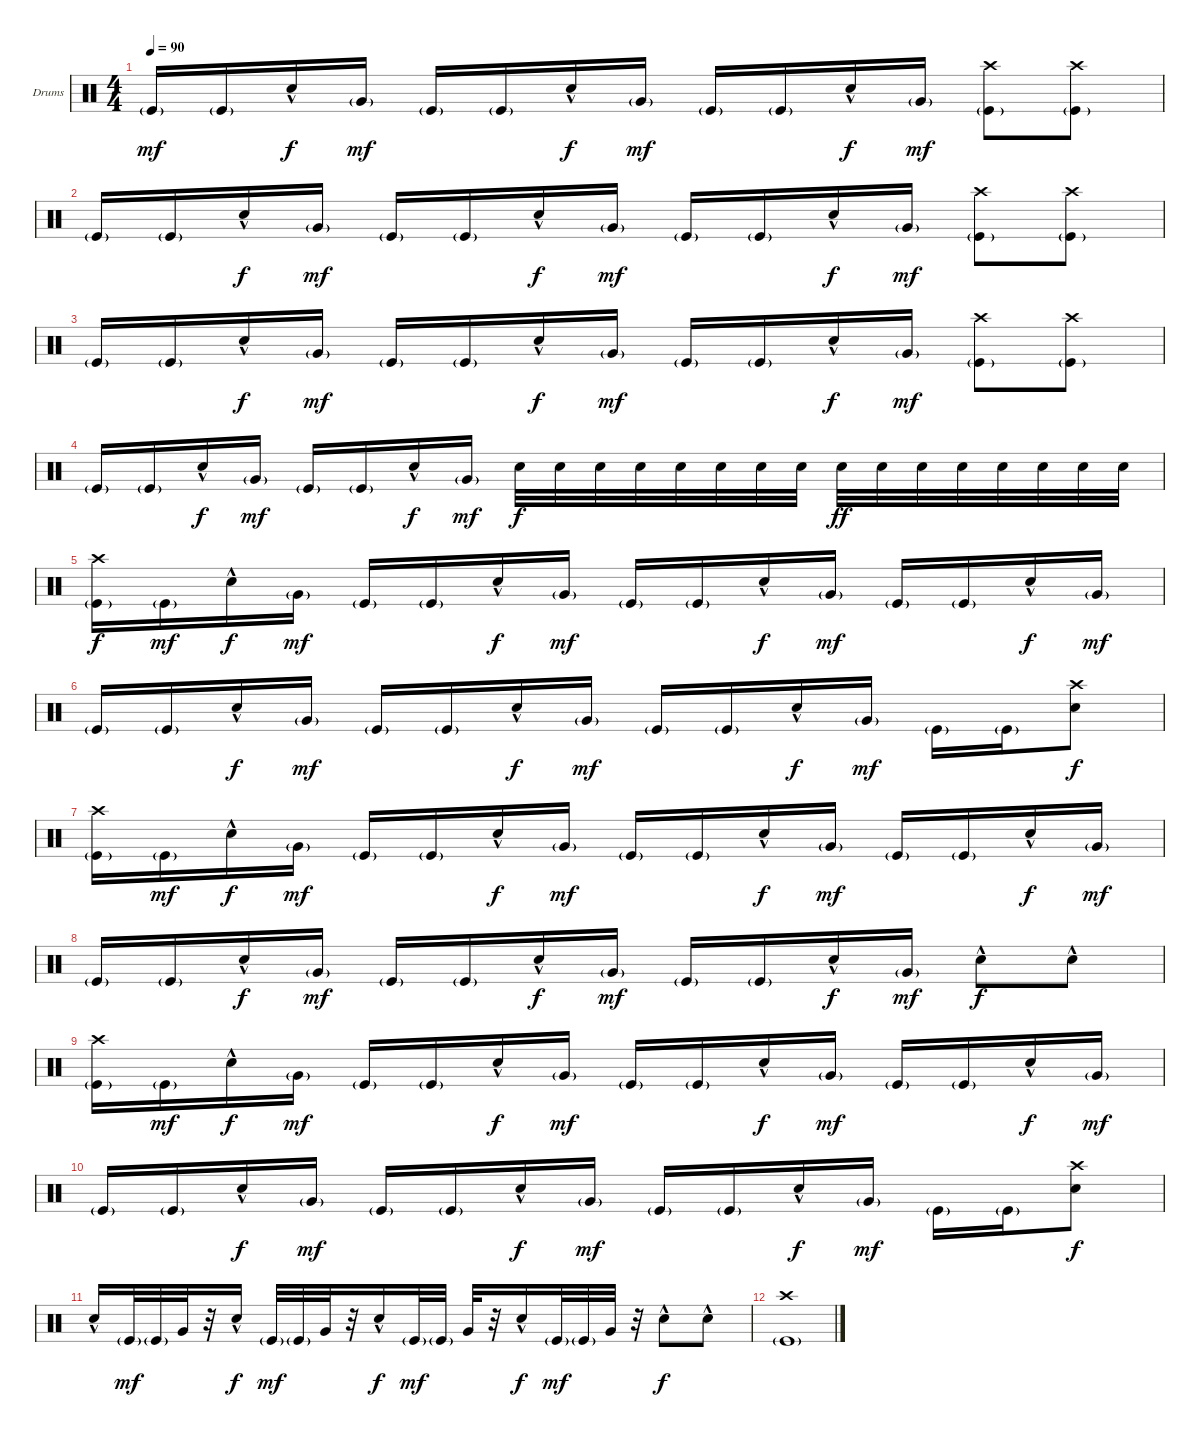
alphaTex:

\defaultSystemsLayout 4
\bracketExtendMode groupsimilarinstruments
\firstSystemTrackNameOrientation horizontal
\otherSystemsTrackNameOrientation horizontal
\track ("Drums" "Drums") {instrument percussion}
\staff {score}
\articulation defaults
\ts (4 4)
\tempo 90
\clef neutral
\ks c "Kick (hit)"{g}.16{dy mf} "Kick (hit)"{g}.16 "Snare (hit) 2"{hac}.16{dy f} "Very Low Tom (hit)"{g}.16{dy mf} "Kick (hit)"{g}.16 "Kick (hit)"{g}.16 "Snare (hit) 2"{hac}.16{dy f} "Very Low Tom (hit)"{g}.16{dy mf} "Kick (hit)"{g}.16 "Kick (hit)"{g}.16 "Snare (hit) 2"{hac}.16{dy f} "Very Low Tom (hit)"{g}.16{dy mf}
("Crash high (hit)" "Kick (hit)"{g}).8 ("Crash high (hit)" "Kick (hit)"{g}).8 |
"Kick (hit)"{g}.16 "Kick (hit)"{g}.16 "Snare (hit) 2"{hac}.16{dy f} "Very Low Tom (hit)"{g}.16{dy mf} "Kick (hit)"{g}.16 "Kick (hit)"{g}.16 "Snare (hit) 2"{hac}.16{dy f} "Very Low Tom (hit)"{g}.16{dy mf} "Kick (hit)"{g}.16 "Kick (hit)"{g}.16 "Snare (hit) 2"{hac}.16{dy f} "Very Low Tom (hit)"{g}.16{dy mf} ("Crash high (hit)" "Kick (hit)"{g}).8 ("Crash high (hit)" "Kick (hit)"{g}).8 |
"Kick (hit)"{g}.16 "Kick (hit)"{g}.16 "Snare (hit) 2"{hac}.16{dy f} "Very Low Tom (hit)"{g}.16{dy mf} "Kick (hit)"{g}.16 "Kick (hit)"{g}.16 "Snare (hit) 2"{hac}.16{dy f} "Very Low Tom (hit)"{g}.16{dy mf} "Kick (hit)"{g}.16 "Kick (hit)"{g}.16 "Snare (hit) 2"{hac}.16{dy f} "Very Low Tom (hit)"{g}.16{dy mf} ("Crash high (hit)" "Kick (hit)"{g}).8 ("Crash high (hit)" "Kick (hit)"{g}).8 |
"Kick (hit)"{g}.16 "Kick (hit)"{g}.16 "Snare (hit) 2"{hac}.16{dy f} "Very Low Tom (hit)"{g}.16{dy mf} "Kick (hit)"{g}.16 "Kick (hit)"{g}.16 "Snare (hit) 2"{hac}.16{dy f} "Very Low Tom (hit)"{g}.16{dy mf} "Snare (hit) 2".32{dy f} "Snare (hit) 2".32 "Snare (hit) 2".32 "Snare (hit) 2".32 "Snare (hit) 2".32 "Snare (hit) 2".32 "Snare (hit) 2".32 "Snare (hit) 2".32 "Snare (hit) 2".32{dy ff} "Snare (hit) 2".32 "Snare (hit) 2".32 "Snare (hit) 2".32 "Snare (hit) 2".32 "Snare (hit) 2".32 "Snare (hit) 2".32 "Snare (hit) 2".32 |
("Crash high (hit)" "Kick (hit)"{g}).16{dy f} "Kick (hit)"{g}.16{dy mf} "Snare (hit) 2"{hac}.16{dy f} "Very Low Tom (hit)"{g}.16{dy mf} "Kick (hit)"{g}.16 "Kick (hit)"{g}.16 "Snare (hit) 2"{hac}.16{dy f} "Very Low Tom (hit)"{g}.16{dy mf} "Kick (hit)"{g}.16 "Kick (hit)"{g}.16 "Snare (hit) 2"{hac}.16{dy f} "Very Low Tom (hit)"{g}.16{dy mf} "Kick (hit)"{g}.16 "Kick (hit)"{g}.16 "Snare (hit) 2"{hac}.16{dy f} "Very Low Tom (hit)"{g}.16{dy mf} |
"Kick (hit)"{g}.16 "Kick (hit)"{g}.16 "Snare (hit) 2"{hac}.16{dy f} "Very Low Tom (hit)"{g}.16{dy mf} "Kick (hit)"{g}.16 "Kick (hit)"{g}.16 "Snare (hit) 2"{hac}.16{dy f} "Very Low Tom (hit)"{g}.16{dy mf} "Kick (hit)"{g}.16 "Kick (hit)"{g}.16 "Snare (hit) 2"{hac}.16{dy f} "Very Low Tom (hit)"{g}.16{dy mf} "Kick (hit)"{g}.16 "Kick (hit)"{g}.16 ("Crash high (hit)" "Snare (hit) 2").8{dy f} |
("Crash high (hit)" "Kick (hit)"{g}).16 "Kick (hit)"{g}.16{dy mf} "Snare (hit) 2"{hac}.16{dy f} "Very Low Tom (hit)"{g}.16{dy mf} "Kick (hit)"{g}.16 "Kick (hit)"{g}.16 "Snare (hit) 2"{hac}.16{dy f} "Very Low Tom (hit)"{g}.16{dy mf} "Kick (hit)"{g}.16 "Kick (hit)"{g}.16 "Snare (hit) 2"{hac}.16{dy f} "Very Low Tom (hit)"{g}.16{dy mf} "Kick (hit)"{g}.16 "Kick (hit)"{g}.16 "Snare (hit) 2"{hac}.16{dy f} "Very Low Tom (hit)"{g}.16{dy mf} |
"Kick (hit)"{g}.16 "Kick (hit)"{g}.16 "Snare (hit) 2"{hac}.16{dy f} "Very Low Tom (hit)"{g}.16{dy mf} "Kick (hit)"{g}.16 "Kick (hit)"{g}.16 "Snare (hit) 2"{hac}.16{dy f} "Very Low Tom (hit)"{g}.16{dy mf} "Kick (hit)"{g}.16 "Kick (hit)"{g}.16 "Snare (hit) 2"{hac}.16{dy f} "Very Low Tom (hit)"{g}.16{dy mf} "Snare (hit) 2"{hac}.8{dy f} "Snare (hit) 2"{hac}.8 |
("Crash high (hit)" "Kick (hit)"{g}).16 "Kick (hit)"{g}.16{dy mf} "Snare (hit) 2"{hac}.16{dy f} "Very Low Tom (hit)"{g}.16{dy mf} "Kick (hit)"{g}.16 "Kick (hit)"{g}.16 "Snare (hit) 2"{hac}.16{dy f} "Very Low Tom (hit)"{g}.16{dy mf} "Kick (hit)"{g}.16 "Kick (hit)"{g}.16 "Snare (hit) 2"{hac}.16{dy f} "Very Low Tom (hit)"{g}.16{dy mf} "Kick (hit)"{g}.16 "Kick (hit)"{g}.16 "Snare (hit) 2"{hac}.16{dy f} "Very Low Tom (hit)"{g}.16{dy mf} |
"Kick (hit)"{g}.16 "Kick (hit)"{g}.16 "Snare (hit) 2"{hac}.16{dy f} "Very Low Tom (hit)"{g}.16{dy mf} "Kick (hit)"{g}.16 "Kick (hit)"{g}.16 "Snare (hit) 2"{hac}.16{dy f} "Very Low Tom (hit)"{g}.16{dy mf} "Kick (hit)"{g}.16 "Kick (hit)"{g}.16 "Snare (hit) 2"{hac}.16{dy f} "Very Low Tom (hit)"{g}.16{dy mf} "Kick (hit)"{g}.16 "Kick (hit)"{g}.16 ("Crash high (hit)" "Snare (hit) 2").8{dy f} |
"Snare (hit) 2"{hac}.16 "Kick (hit)"{g}.32{dy mf} "Kick (hit)"{g}.32 "Very Low Tom (hit)".32 r.32 "Snare (hit) 2"{hac}.16{dy f} "Kick (hit)"{g}.32{dy mf} "Kick (hit)"{g}.32 "Very Low Tom (hit)".32 r.32 "Snare (hit) 2"{hac}.16{dy f} "Kick (hit)"{g}.32{dy mf} "Kick (hit)"{g}.32 "Very Low Tom (hit)".32 r.32 "Snare (hit) 2"{hac}.16{dy f} "Kick (hit)"{g}.32{dy mf} "Kick (hit)"{g}.32 "Very Low Tom (hit)".32 r.32 "Snare (hit) 2"{hac}.8{dy f} "Snare (hit) 2"{hac}.8 |
("Crash high (hit)" "Kick (hit)"{g}).1
